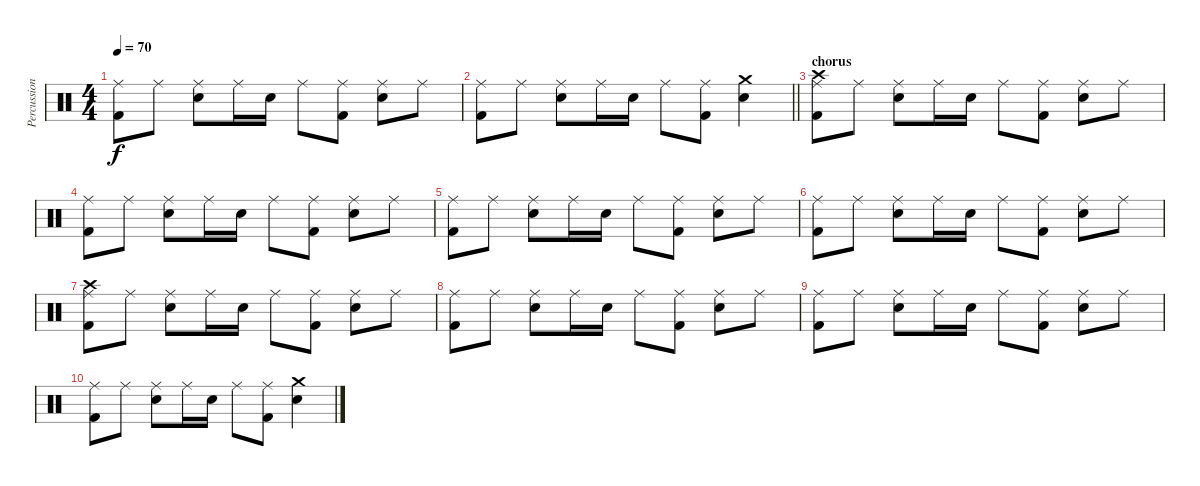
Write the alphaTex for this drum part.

\track ("Percussion" "Percussion") {instrument percussion}
\staff {score}
\articulation defaults
\ts (4 4)
\tempo 70
\clef neutral
\ks c
("Ride (middle)" "Kick (hit) 2").8{dy f} "Ride (middle)".8 ("Ride (middle)" "Electric Snare (hit)").8 "Ride (middle)".16 "Electric Snare (hit)".16 "Ride (middle)".8 ("Ride (middle)" "Kick (hit) 2").8 ("Ride (middle)" "Electric Snare (hit)").8 "Ride (middle)".8 |
\barLineRight lightlight
("Ride (middle)" "Kick (hit) 2").8 "Ride (middle)".8 ("Ride (middle)" "Electric Snare (hit)").8 "Ride (middle)".16 "Electric Snare (hit)".16 "Ride (middle)".8 ("Ride (middle)" "Kick (hit) 2").8 ("Crash medium (hit)" "Electric Snare (hit)").4 |
\section ("" "chorus")
("Crash high (hit)" "Ride (middle)" "Kick (hit) 2").8 "Ride (middle)".8 ("Ride (middle)" "Electric Snare (hit)").8 "Ride (middle)".16 "Electric Snare (hit)".16 "Ride (middle)".8 ("Ride (middle)" "Kick (hit) 2").8 ("Ride (middle)" "Electric Snare (hit)").8 "Ride (middle)".8 |
("Ride (middle)" "Kick (hit) 2").8 "Ride (middle)".8 ("Ride (middle)" "Electric Snare (hit)").8 "Ride (middle)".16 "Electric Snare (hit)".16 "Ride (middle)".8 ("Ride (middle)" "Kick (hit) 2").8 ("Ride (middle)" "Electric Snare (hit)").8 "Ride (middle)".8 |
("Ride (middle)" "Kick (hit) 2").8 "Ride (middle)".8 ("Ride (middle)" "Electric Snare (hit)").8 "Ride (middle)".16 "Electric Snare (hit)".16 "Ride (middle)".8 ("Ride (middle)" "Kick (hit) 2").8 ("Ride (middle)" "Electric Snare (hit)").8 "Ride (middle)".8 |
("Ride (middle)" "Kick (hit) 2").8 "Ride (middle)".8 ("Ride (middle)" "Electric Snare (hit)").8 "Ride (middle)".16 "Electric Snare (hit)".16 "Ride (middle)".8 ("Ride (middle)" "Kick (hit) 2").8 ("Ride (middle)" "Electric Snare (hit)").8 "Ride (middle)".8 |
("Crash high (hit)" "Ride (middle)" "Kick (hit) 2").8 "Ride (middle)".8 ("Ride (middle)" "Electric Snare (hit)").8 "Ride (middle)".16 "Electric Snare (hit)".16 "Ride (middle)".8 ("Ride (middle)" "Kick (hit) 2").8 ("Ride (middle)" "Electric Snare (hit)").8 "Ride (middle)".8 |
("Ride (middle)" "Kick (hit) 2").8 "Ride (middle)".8 ("Ride (middle)" "Electric Snare (hit)").8 "Ride (middle)".16 "Electric Snare (hit)".16 "Ride (middle)".8 ("Ride (middle)" "Kick (hit) 2").8 ("Ride (middle)" "Electric Snare (hit)").8 "Ride (middle)".8 |
("Ride (middle)" "Kick (hit) 2").8 "Ride (middle)".8 ("Ride (middle)" "Electric Snare (hit)").8 "Ride (middle)".16 "Electric Snare (hit)".16 "Ride (middle)".8 ("Ride (middle)" "Kick (hit) 2").8 ("Ride (middle)" "Electric Snare (hit)").8 "Ride (middle)".8 |
("Ride (middle)" "Kick (hit) 2").8 "Ride (middle)".8 ("Ride (middle)" "Electric Snare (hit)").8 "Ride (middle)".16 "Electric Snare (hit)".16 "Ride (middle)".8 ("Ride (middle)" "Kick (hit) 2").8 ("Crash medium (hit)" "Electric Snare (hit)").4
